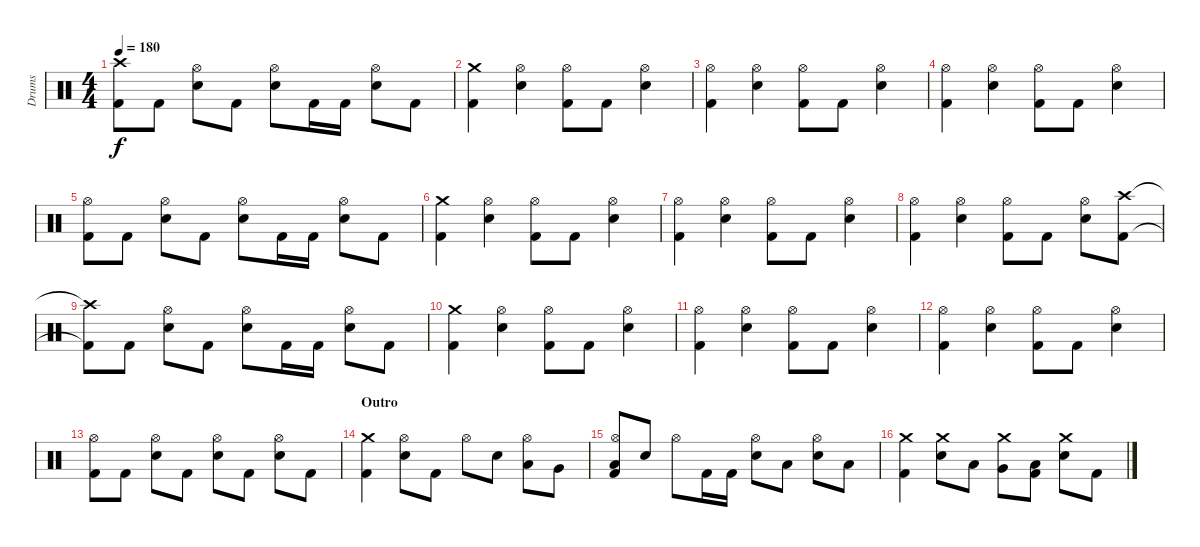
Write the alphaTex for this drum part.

\track ("Drums" "Drums") {instrument percussion}
\staff {score}
\articulation defaults
\ts (4 4)
\tempo 180
\clef neutral
\ks c
("Crash high (hit)"{t} "Kick (hit) 2"{t}).8{dy f} "Kick (hit) 2".8 ("Hi-Hat (open)" "Electric Snare (hit)").8 "Kick (hit) 2".8 ("Hi-Hat (open)" "Electric Snare (hit)").8 "Kick (hit) 2".16 "Kick (hit) 2".16 ("Hi-Hat (open)" "Electric Snare (hit)").8 "Kick (hit) 2".8 |
("Crash medium (hit)" "Kick (hit) 2").4 ("Hi-Hat (open)" "Electric Snare (hit)").4 ("Hi-Hat (open)" "Kick (hit) 2").8 "Kick (hit) 2".8 ("Hi-Hat (open)" "Electric Snare (hit)").4 |
("Hi-Hat (open)" "Kick (hit) 2").4 ("Hi-Hat (open)" "Electric Snare (hit)").4 ("Hi-Hat (open)" "Kick (hit) 2").8 "Kick (hit) 2".8 ("Hi-Hat (open)" "Electric Snare (hit)").4 |
("Hi-Hat (open)" "Kick (hit) 2").4 ("Hi-Hat (open)" "Electric Snare (hit)").4 ("Hi-Hat (open)" "Kick (hit) 2").8 "Kick (hit) 2".8 ("Hi-Hat (open)" "Electric Snare (hit)").4 |
("Hi-Hat (open)" "Kick (hit) 2").8 "Kick (hit) 2".8 ("Hi-Hat (open)" "Electric Snare (hit)").8 "Kick (hit) 2".8 ("Hi-Hat (open)" "Electric Snare (hit)").8 "Kick (hit) 2".16 "Kick (hit) 2".16 ("Hi-Hat (open)" "Electric Snare (hit)").8 "Kick (hit) 2".8 |
("Crash medium (hit)" "Kick (hit) 2").4 ("Hi-Hat (open)" "Electric Snare (hit)").4 ("Hi-Hat (open)" "Kick (hit) 2").8 "Kick (hit) 2".8 ("Hi-Hat (open)" "Electric Snare (hit)").4 |
("Hi-Hat (open)" "Kick (hit) 2").4 ("Hi-Hat (open)" "Electric Snare (hit)").4 ("Hi-Hat (open)" "Kick (hit) 2").8 "Kick (hit) 2".8 ("Hi-Hat (open)" "Electric Snare (hit)").4 |
("Hi-Hat (open)" "Kick (hit) 2").4 ("Hi-Hat (open)" "Electric Snare (hit)").4 ("Hi-Hat (open)" "Kick (hit) 2").8 "Kick (hit) 2".8 ("Hi-Hat (open)" "Electric Snare (hit)").8 ("Crash high (hit)" "Kick (hit) 2").8 |
("Crash high (hit)"{t} "Kick (hit) 2"{t}).8 "Kick (hit) 2".8 ("Hi-Hat (open)" "Electric Snare (hit)").8 "Kick (hit) 2".8 ("Hi-Hat (open)" "Electric Snare (hit)").8 "Kick (hit) 2".16 "Kick (hit) 2".16 ("Hi-Hat (open)" "Electric Snare (hit)").8 "Kick (hit) 2".8 |
("Crash medium (hit)" "Kick (hit) 2").4 ("Hi-Hat (open)" "Electric Snare (hit)").4 ("Hi-Hat (open)" "Kick (hit) 2").8 "Kick (hit) 2".8 ("Hi-Hat (open)" "Electric Snare (hit)").4 |
("Hi-Hat (open)" "Kick (hit) 2").4 ("Hi-Hat (open)" "Electric Snare (hit)").4 ("Hi-Hat (open)" "Kick (hit) 2").8 "Kick (hit) 2".8 ("Hi-Hat (open)" "Electric Snare (hit)").4 |
("Hi-Hat (open)" "Kick (hit) 2").4 ("Hi-Hat (open)" "Electric Snare (hit)").4 ("Hi-Hat (open)" "Kick (hit) 2").8 "Kick (hit) 2".8 ("Hi-Hat (open)" "Electric Snare (hit)").4 |
("Hi-Hat (open)" "Kick (hit) 2").8 "Kick (hit) 2".8 ("Hi-Hat (open)" "Electric Snare (hit)").8 "Kick (hit) 2".8 ("Hi-Hat (open)" "Electric Snare (hit)").8 "Kick (hit) 2".8 ("Hi-Hat (open)" "Electric Snare (hit)").8 "Kick (hit) 2".8 |
\section ("" "Outro")
("Crash medium (hit)" "Kick (hit) 2").4 ("Hi-Hat (open)" "Electric Snare (hit)").8 "Kick (hit) 2".8 "Hi-Hat (open)".8 "Electric Snare (hit)".8 ("Hi-Hat (open)" "Low Tom (hit)").8 "Very Low Tom (hit)".8 |
("Hi-Hat (open)" "Low Floor Tom (hit)" "Kick (hit) 2").8 "Electric Snare (hit)".8 "Hi-Hat (open)".8 "Kick (hit) 2".16 "Kick (hit) 2".16 ("Hi-Hat (open)" "Electric Snare (hit)").8 "Low Tom (hit)".8 ("Hi-Hat (open)" "Electric Snare (hit)").8 "Low Tom (hit)".8 |
("Crash medium (hit)" "Kick (hit) 2").4 ("Crash medium (hit)" "Electric Snare (hit)").8 "Low Tom (hit)".8 ("Crash medium (hit)" "Very Low Tom (hit)").8 ("Low Floor Tom (hit)" "Kick (hit) 2").8 ("Crash medium (hit)" "Electric Snare (hit)").8 "Kick (hit) 2".8
